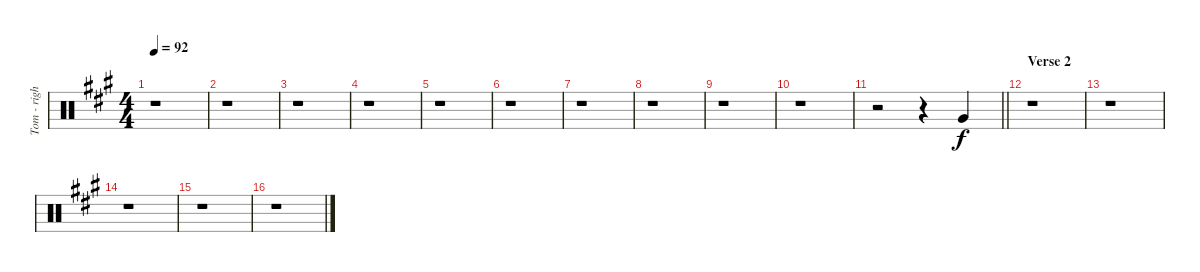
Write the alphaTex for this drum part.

\track ("Tom - right" "Tom - righ") {instrument percussion}
\staff {score}
\articulation defaults
\ts (4 4)
\tempo 92
\clef neutral
\ks f#minor
r.1{dy f} |
r.1 |
r.1 |
r.1 |
r.1 |
r.1 |
r.1 |
r.1 |
r.1 |
r.1 |
\barLineRight lightlight
r.2 r.4{beam Up} "Very Low Tom (hit)".4{beam Up} |
\section ("" "Verse 2")
r.1 |
r.1 |
r.1 |
r.1 |
r.1
